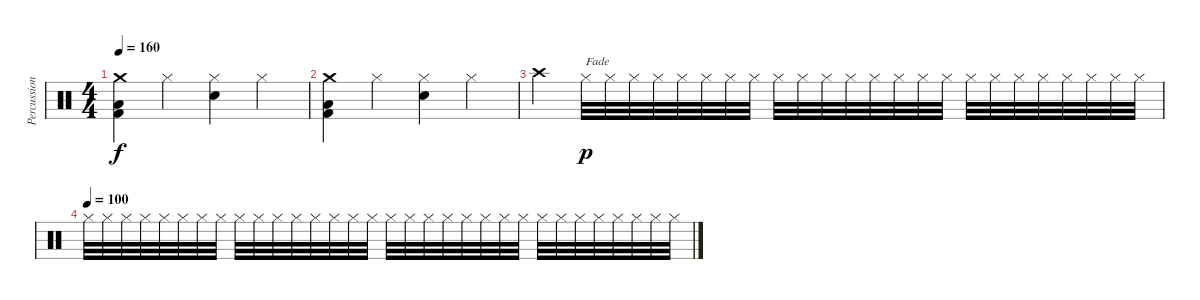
\track ("Percussion" "Percussion") {instrument percussion}
\staff {score}
\articulation defaults
\ts (4 4)
\tempo 160
\clef neutral
\ks c
("Crash medium (hit)" "Low Tom (hit)" "Kick (hit) 2").4{dy f} "Hi-Hat (closed)".4 ("Hi-Hat (closed)" "Snare (hit) 2").4 "Hi-Hat (closed)".4 |
("Crash medium (hit)" "Low Tom (hit)" "Kick (hit) 2").4 "Hi-Hat (closed)".4 ("Hi-Hat (closed)" "Snare (hit) 2").4 "Hi-Hat (closed)".4 |
"Crash high (hit)".4 "Hi-Hat (closed)".32{txt "Fade" dy p volume 0} "Hi-Hat (closed)".32 "Hi-Hat (closed)".32 "Hi-Hat (closed)".32 "Hi-Hat (closed)".32 "Hi-Hat (closed)".32 "Hi-Hat (closed)".32 "Hi-Hat (closed)".32 "Hi-Hat (closed)".32 "Hi-Hat (closed)".32 "Hi-Hat (closed)".32 "Hi-Hat (closed)".32 "Hi-Hat (closed)".32 "Hi-Hat (closed)".32 "Hi-Hat (closed)".32 "Hi-Hat (closed)".32 "Hi-Hat (closed)".32 "Hi-Hat (closed)".32 "Hi-Hat (closed)".32 "Hi-Hat (closed)".32 "Hi-Hat (closed)".32 "Hi-Hat (closed)".32 "Hi-Hat (closed)".32 "Hi-Hat (closed)".32 |
\tempo (100)
"Hi-Hat (closed)".32 "Hi-Hat (closed)".32 "Hi-Hat (closed)".32 "Hi-Hat (closed)".32 "Hi-Hat (closed)".32 "Hi-Hat (closed)".32 "Hi-Hat (closed)".32 "Hi-Hat (closed)".32 "Hi-Hat (closed)".32 "Hi-Hat (closed)".32 "Hi-Hat (closed)".32 "Hi-Hat (closed)".32 "Hi-Hat (closed)".32 "Hi-Hat (closed)".32 "Hi-Hat (closed)".32 "Hi-Hat (closed)".32 "Hi-Hat (closed)".32 "Hi-Hat (closed)".32 "Hi-Hat (closed)".32 "Hi-Hat (closed)".32 "Hi-Hat (closed)".32 "Hi-Hat (closed)".32 "Hi-Hat (closed)".32 "Hi-Hat (closed)".32 "Hi-Hat (closed)".32 "Hi-Hat (closed)".32 "Hi-Hat (closed)".32 "Hi-Hat (closed)".32 "Hi-Hat (closed)".32 "Hi-Hat (closed)".32 "Hi-Hat (closed)".32 "Hi-Hat (closed)".32
